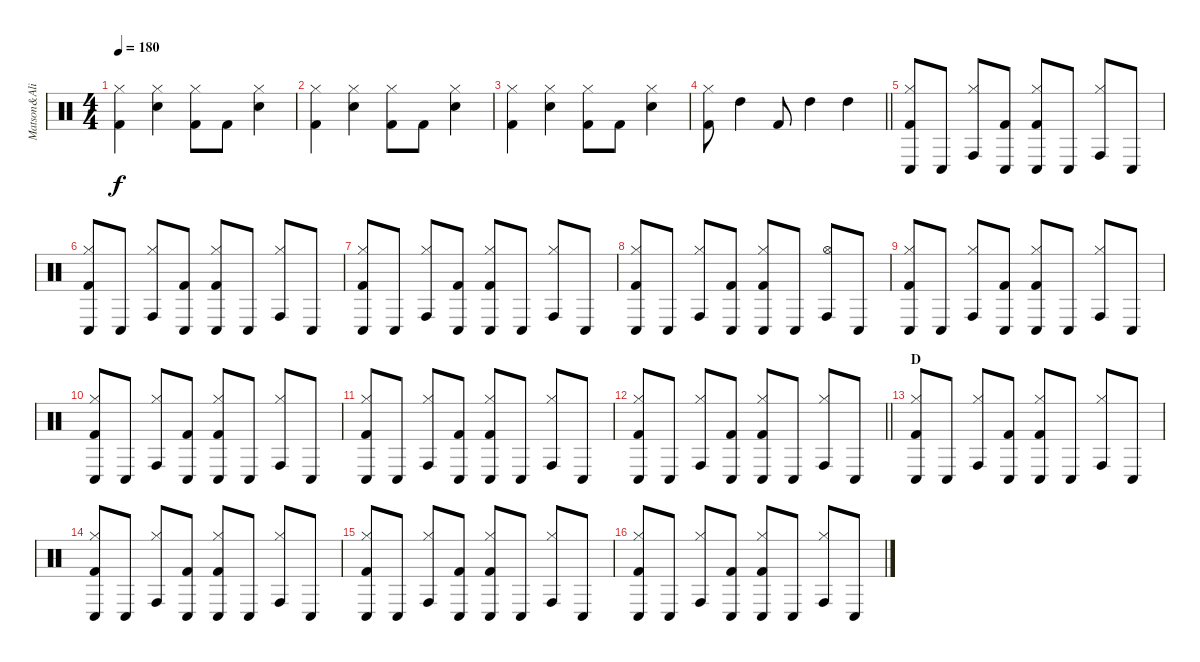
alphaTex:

\track ("Matson&Ali" "Matson&Ali") {instrument percussion}
\staff {score}
\articulation defaults
\ts (4 4)
\tempo 180
\clef neutral
\ks c
("Hi-Hat (closed)" "Kick (hit) 2").4{dy f} ("Hi-Hat (closed)" "Snare (hit) 2").4 ("Hi-Hat (closed)" "Kick (hit) 2").8 "Kick (hit) 2".8 ("Hi-Hat (closed)" "Snare (hit) 2").4 |
("Hi-Hat (closed)" "Kick (hit) 2").4 ("Hi-Hat (closed)" "Snare (hit) 2").4 ("Hi-Hat (closed)" "Kick (hit) 2").8 "Kick (hit) 2".8 ("Hi-Hat (closed)" "Snare (hit) 2").4 |
("Hi-Hat (closed)" "Kick (hit) 2").4 ("Hi-Hat (closed)" "Snare (hit) 2").4 ("Hi-Hat (closed)" "Kick (hit) 2").8 "Kick (hit) 2".8 ("Hi-Hat (closed)" "Snare (hit) 2").4 |
\barLineRight lightlight
("Hi-Hat (closed)" "Kick (hit) 2").8 "High Tom (hit)".4 "Kick (hit) 2".8 "High Tom (hit)".4 "High Tom (hit)".4 |
("Hi-Hat (closed)" "Conga low (hit)" "Kick (hit) 2").8 "Conga low (hit)".8 ("Hi-Hat (closed)" "Conga high (hit)").8 ("Conga low (hit)" "Kick (hit) 2").8 ("Hi-Hat (closed)" "Conga low (hit)" "Kick (hit) 2").8 "Conga low (hit)".8 ("Hi-Hat (closed)" "Conga high (hit)").8 "Conga low (hit)".8 |
("Hi-Hat (closed)" "Conga low (hit)" "Kick (hit) 2").8 "Conga low (hit)".8 ("Hi-Hat (closed)" "Conga high (hit)").8 ("Conga low (hit)" "Kick (hit) 2").8 ("Hi-Hat (closed)" "Conga low (hit)" "Kick (hit) 2").8 "Conga low (hit)".8 ("Hi-Hat (closed)" "Conga high (hit)").8 "Conga low (hit)".8 |
("Hi-Hat (closed)" "Conga low (hit)" "Kick (hit) 2").8 "Conga low (hit)".8 ("Hi-Hat (closed)" "Conga high (hit)").8 ("Conga low (hit)" "Kick (hit) 2").8 ("Hi-Hat (closed)" "Conga low (hit)" "Kick (hit) 2").8 "Conga low (hit)".8 ("Hi-Hat (closed)" "Conga high (hit)").8 "Conga low (hit)".8 |
("Hi-Hat (closed)" "Conga low (hit)" "Kick (hit) 2").8 "Conga low (hit)".8 ("Hi-Hat (closed)" "Conga high (hit)").8 ("Conga low (hit)" "Kick (hit) 2").8 ("Hi-Hat (closed)" "Conga low (hit)" "Kick (hit) 2").8 "Conga low (hit)".8 ("Hi-Hat (open)" "Conga high (hit)").8 "Conga low (hit)".8 |
("Hi-Hat (closed)" "Conga low (hit)" "Kick (hit) 2").8 "Conga low (hit)".8 ("Hi-Hat (closed)" "Conga high (hit)").8 ("Conga low (hit)" "Kick (hit) 2").8 ("Hi-Hat (closed)" "Conga low (hit)" "Kick (hit) 2").8 "Conga low (hit)".8 ("Hi-Hat (closed)" "Conga high (hit)").8 "Conga low (hit)".8 |
("Hi-Hat (closed)" "Conga low (hit)" "Kick (hit) 2").8 "Conga low (hit)".8 ("Hi-Hat (closed)" "Conga high (hit)").8 ("Conga low (hit)" "Kick (hit) 2").8 ("Hi-Hat (closed)" "Conga low (hit)" "Kick (hit) 2").8 "Conga low (hit)".8 ("Hi-Hat (closed)" "Conga high (hit)").8 "Conga low (hit)".8 |
("Hi-Hat (closed)" "Conga low (hit)" "Kick (hit) 2").8 "Conga low (hit)".8 ("Hi-Hat (closed)" "Conga high (hit)").8 ("Conga low (hit)" "Kick (hit) 2").8 ("Hi-Hat (closed)" "Conga low (hit)" "Kick (hit) 2").8 "Conga low (hit)".8 ("Hi-Hat (closed)" "Conga high (hit)").8 "Conga low (hit)".8 |
\barLineRight lightlight
("Hi-Hat (closed)" "Conga low (hit)" "Kick (hit) 2").8 "Conga low (hit)".8 ("Hi-Hat (closed)" "Conga high (hit)").8 ("Conga low (hit)" "Kick (hit) 2").8 ("Hi-Hat (closed)" "Conga low (hit)" "Kick (hit) 2").8 "Conga low (hit)".8 ("Hi-Hat (closed)" "Conga high (hit)").8 "Conga low (hit)".8 |
\section ("" "D")
("Hi-Hat (closed)" "Conga low (hit)" "Kick (hit) 2").8 "Conga low (hit)".8 ("Hi-Hat (closed)" "Conga high (hit)").8 ("Conga low (hit)" "Kick (hit) 2").8 ("Hi-Hat (closed)" "Conga low (hit)" "Kick (hit) 2").8 "Conga low (hit)".8 ("Hi-Hat (closed)" "Conga high (hit)").8 "Conga low (hit)".8 |
("Hi-Hat (closed)" "Conga low (hit)" "Kick (hit) 2").8 "Conga low (hit)".8 ("Hi-Hat (closed)" "Conga high (hit)").8 ("Conga low (hit)" "Kick (hit) 2").8 ("Hi-Hat (closed)" "Conga low (hit)" "Kick (hit) 2").8 "Conga low (hit)".8 ("Hi-Hat (closed)" "Conga high (hit)").8 "Conga low (hit)".8 |
("Hi-Hat (closed)" "Conga low (hit)" "Kick (hit) 2").8 "Conga low (hit)".8 ("Hi-Hat (closed)" "Conga high (hit)").8 ("Conga low (hit)" "Kick (hit) 2").8 ("Hi-Hat (closed)" "Conga low (hit)" "Kick (hit) 2").8 "Conga low (hit)".8 ("Hi-Hat (closed)" "Conga high (hit)").8 "Conga low (hit)".8 |
("Hi-Hat (closed)" "Conga low (hit)" "Kick (hit) 2").8 "Conga low (hit)".8 ("Hi-Hat (closed)" "Conga high (hit)").8 ("Conga low (hit)" "Kick (hit) 2").8 ("Hi-Hat (closed)" "Conga low (hit)" "Kick (hit) 2").8 "Conga low (hit)".8 ("Hi-Hat (closed)" "Conga high (hit)").8 "Conga low (hit)".8
